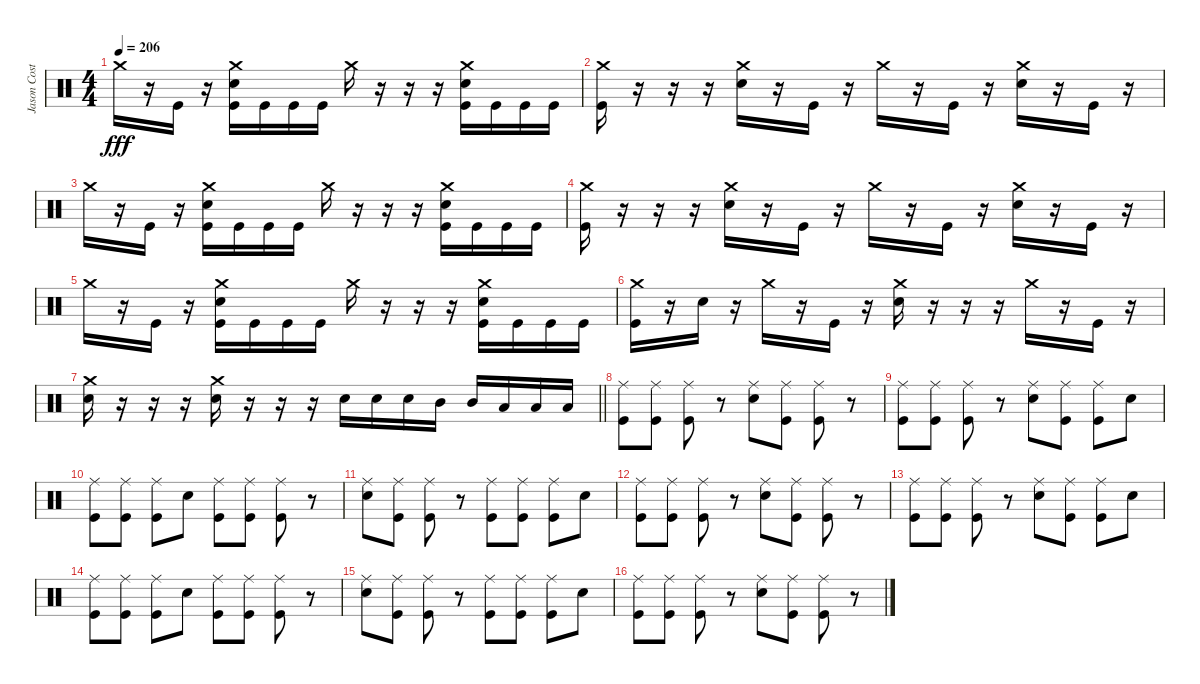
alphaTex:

\track ("Jason Costa" "Jason Cost") {instrument percussion}
\staff {score}
\articulation defaults
\ts (4 4)
\tempo 206
\clef neutral
\ks c "Crash medium (hit)".16{dy fff}
r.16 "Kick (hit)".16 r.16 ("Crash medium (hit)" "Snare (hit) 2" "Kick (hit)").16 "Kick (hit)".16 "Kick (hit)".16 "Kick (hit)".16 "Crash medium (hit)".16 r.16 r.16 r.16 ("Crash medium (hit)" "Snare (hit) 2" "Kick (hit)").16 "Kick (hit)".16 "Kick (hit)".16 "Kick (hit)".16 |
("Crash medium (hit)" "Kick (hit)").16 r.16 r.16 r.16 ("Crash medium (hit)" "Snare (hit) 2").16 r.16 "Kick (hit)".16 r.16 "Crash medium (hit)".16 r.16 "Kick (hit)".16 r.16 ("Crash medium (hit)" "Snare (hit) 2").16 r.16 "Kick (hit)".16 r.16 |
"Crash medium (hit)".16 r.16 "Kick (hit)".16 r.16 ("Crash medium (hit)" "Snare (hit) 2" "Kick (hit)").16 "Kick (hit)".16 "Kick (hit)".16 "Kick (hit)".16 "Crash medium (hit)".16 r.16 r.16 r.16 ("Crash medium (hit)" "Snare (hit) 2" "Kick (hit)").16 "Kick (hit)".16 "Kick (hit)".16 "Kick (hit)".16 |
("Crash medium (hit)" "Kick (hit)").16 r.16 r.16 r.16 ("Crash medium (hit)" "Snare (hit) 2").16 r.16 "Kick (hit)".16 r.16 "Crash medium (hit)".16 r.16 "Kick (hit)".16 r.16 ("Crash medium (hit)" "Snare (hit) 2").16 r.16 "Kick (hit)".16 r.16 |
"Crash medium (hit)".16 r.16 "Kick (hit)".16 r.16 ("Crash medium (hit)" "Snare (hit) 2" "Kick (hit)").16 "Kick (hit)".16 "Kick (hit)".16 "Kick (hit)".16 "Crash medium (hit)".16 r.16 r.16 r.16 ("Crash medium (hit)" "Snare (hit) 2" "Kick (hit)").16 "Kick (hit)".16 "Kick (hit)".16 "Kick (hit)".16 |
("Crash medium (hit)" "Kick (hit)").16 r.16 "Snare (hit) 2".16 r.16 "Crash medium (hit)".16 r.16 "Kick (hit)".16 r.16 ("Crash medium (hit)" "Snare (hit) 2").16 r.16 r.16 r.16 "Crash medium (hit)".16 r.16 "Kick (hit)".16 r.16 |
\barLineRight lightlight
("Crash medium (hit)" "Snare (hit) 2").16 r.16 r.16 r.16 ("Crash medium (hit)" "Snare (hit) 2").16 r.16 r.16 r.16 "Snare (hit) 2".16 "Snare (hit) 2".16 "Snare (hit) 2".16 "Mid Tom (hit)".16 "Mid Tom (hit)".16 "Low Tom (hit)".16 "Low Tom (hit)".16 "Low Tom (hit)".16 |
("Ride (middle)" "Kick (hit)").8 ("Ride (middle)" "Kick (hit)").8 ("Ride (middle)" "Kick (hit)").8 r.8 ("Ride (middle)" "Snare (hit) 2").8 ("Ride (middle)" "Kick (hit)").8 ("Ride (middle)" "Kick (hit)").8 r.8 |
("Ride (middle)" "Kick (hit)").8 ("Ride (middle)" "Kick (hit)").8 ("Ride (middle)" "Kick (hit)").8 r.8 ("Ride (middle)" "Snare (hit) 2").8 ("Ride (middle)" "Kick (hit)").8 ("Ride (middle)" "Kick (hit)").8 "Snare (hit) 2".8 |
("Ride (middle)" "Kick (hit)").8 ("Ride (middle)" "Kick (hit)").8 ("Ride (middle)" "Kick (hit)").8 "Snare (hit) 2".8 ("Ride (middle)" "Kick (hit)").8 ("Ride (middle)" "Kick (hit)").8 ("Ride (middle)" "Kick (hit)").8 r.8 |
("Ride (middle)" "Snare (hit) 2").8 ("Ride (middle)" "Kick (hit)").8 ("Ride (middle)" "Kick (hit)").8 r.8 ("Ride (middle)" "Kick (hit)").8 ("Ride (middle)" "Kick (hit)").8 ("Ride (middle)" "Kick (hit)").8 "Snare (hit) 2".8 |
("Ride (middle)" "Kick (hit)").8 ("Ride (middle)" "Kick (hit)").8 ("Ride (middle)" "Kick (hit)").8 r.8 ("Ride (middle)" "Snare (hit) 2").8 ("Ride (middle)" "Kick (hit)").8 ("Ride (middle)" "Kick (hit)").8 r.8 |
("Ride (middle)" "Kick (hit)").8 ("Ride (middle)" "Kick (hit)").8 ("Ride (middle)" "Kick (hit)").8 r.8 ("Ride (middle)" "Snare (hit) 2").8 ("Ride (middle)" "Kick (hit)").8 ("Ride (middle)" "Kick (hit)").8 "Snare (hit) 2".8 |
("Ride (middle)" "Kick (hit)").8 ("Ride (middle)" "Kick (hit)").8 ("Ride (middle)" "Kick (hit)").8 "Snare (hit) 2".8 ("Ride (middle)" "Kick (hit)").8 ("Ride (middle)" "Kick (hit)").8 ("Ride (middle)" "Kick (hit)").8 r.8 |
("Ride (middle)" "Snare (hit) 2").8 ("Ride (middle)" "Kick (hit)").8 ("Ride (middle)" "Kick (hit)").8 r.8 ("Ride (middle)" "Kick (hit)").8 ("Ride (middle)" "Kick (hit)").8 ("Ride (middle)" "Kick (hit)").8 "Snare (hit) 2".8 |
("Ride (middle)" "Kick (hit)").8 ("Ride (middle)" "Kick (hit)").8 ("Ride (middle)" "Kick (hit)").8 r.8 ("Ride (middle)" "Snare (hit) 2").8 ("Ride (middle)" "Kick (hit)").8 ("Ride (middle)" "Kick (hit)").8 r.8
